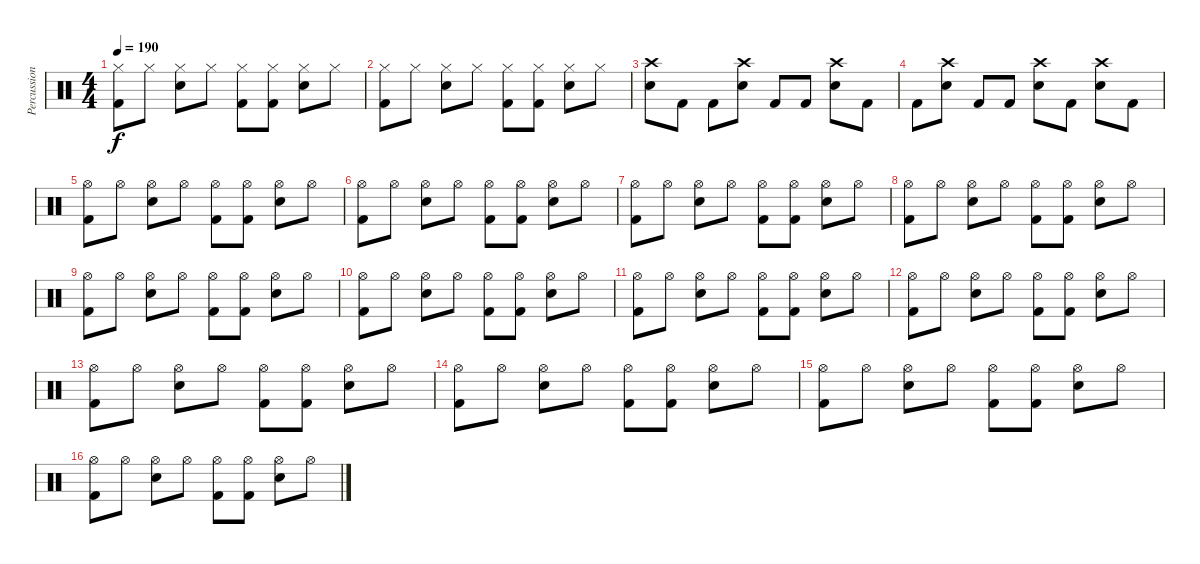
\track ("Percussion" "Percussion") {instrument percussion}
\staff {score}
\articulation defaults
\ts (4 4)
\tempo 190
\clef neutral
\ks c
("Hi-Hat (closed)" "Kick (hit) 2").8{dy f} "Hi-Hat (closed)".8 ("Hi-Hat (closed)" "Snare (hit) 2").8 "Hi-Hat (closed)".8 ("Hi-Hat (closed)" "Kick (hit) 2").8 ("Hi-Hat (closed)" "Kick (hit) 2").8 ("Hi-Hat (closed)" "Snare (hit) 2").8 "Hi-Hat (closed)".8 |
("Hi-Hat (closed)" "Kick (hit) 2").8 "Hi-Hat (closed)".8 ("Hi-Hat (closed)" "Snare (hit) 2").8 "Hi-Hat (closed)".8 ("Hi-Hat (closed)" "Kick (hit) 2").8 ("Hi-Hat (closed)" "Kick (hit) 2").8 ("Hi-Hat (closed)" "Snare (hit) 2").8 "Hi-Hat (closed)".8 |
("Crash high (hit)" "Snare (hit) 2").8 "Kick (hit) 2".8 "Kick (hit) 2".8 ("Crash high (hit)" "Snare (hit) 2").8 "Kick (hit) 2".8 "Kick (hit) 2".8 ("Crash high (hit)" "Snare (hit) 2").8 "Kick (hit) 2".8 |
"Kick (hit) 2".8 ("Crash high (hit)" "Snare (hit) 2").8 "Kick (hit) 2".8 "Kick (hit) 2".8 ("Crash high (hit)" "Snare (hit) 2").8 "Kick (hit) 2".8 ("Crash high (hit)" "Snare (hit) 2").8 "Kick (hit) 2".8 |
("Hi-Hat (open)" "Kick (hit) 2").8 "Hi-Hat (open)".8 ("Hi-Hat (open)" "Snare (hit) 2").8 "Hi-Hat (open)".8 ("Hi-Hat (open)" "Kick (hit) 2").8 ("Hi-Hat (open)" "Kick (hit) 2").8 ("Hi-Hat (open)" "Snare (hit) 2").8 "Hi-Hat (open)".8 |
("Hi-Hat (open)" "Kick (hit) 2").8 "Hi-Hat (open)".8 ("Hi-Hat (open)" "Snare (hit) 2").8 "Hi-Hat (open)".8 ("Hi-Hat (open)" "Kick (hit) 2").8 ("Hi-Hat (open)" "Kick (hit) 2").8 ("Hi-Hat (open)" "Snare (hit) 2").8 "Hi-Hat (open)".8 |
("Hi-Hat (open)" "Kick (hit) 2").8 "Hi-Hat (open)".8 ("Hi-Hat (open)" "Snare (hit) 2").8 "Hi-Hat (open)".8 ("Hi-Hat (open)" "Kick (hit) 2").8 ("Hi-Hat (open)" "Kick (hit) 2").8 ("Hi-Hat (open)" "Snare (hit) 2").8 "Hi-Hat (open)".8 |
("Hi-Hat (open)" "Kick (hit) 2").8 "Hi-Hat (open)".8 ("Hi-Hat (open)" "Snare (hit) 2").8 "Hi-Hat (open)".8 ("Hi-Hat (open)" "Kick (hit) 2").8 ("Hi-Hat (open)" "Kick (hit) 2").8 ("Hi-Hat (open)" "Snare (hit) 2").8 "Hi-Hat (open)".8 |
("Hi-Hat (open)" "Kick (hit) 2").8 "Hi-Hat (open)".8 ("Hi-Hat (open)" "Snare (hit) 2").8 "Hi-Hat (open)".8 ("Hi-Hat (open)" "Kick (hit) 2").8 ("Hi-Hat (open)" "Kick (hit) 2").8 ("Hi-Hat (open)" "Snare (hit) 2").8 "Hi-Hat (open)".8 |
("Hi-Hat (open)" "Kick (hit) 2").8 "Hi-Hat (open)".8 ("Hi-Hat (open)" "Snare (hit) 2").8 "Hi-Hat (open)".8 ("Hi-Hat (open)" "Kick (hit) 2").8 ("Hi-Hat (open)" "Kick (hit) 2").8 ("Hi-Hat (open)" "Snare (hit) 2").8 "Hi-Hat (open)".8 |
("Hi-Hat (open)" "Kick (hit) 2").8 "Hi-Hat (open)".8 ("Hi-Hat (open)" "Snare (hit) 2").8 "Hi-Hat (open)".8 ("Hi-Hat (open)" "Kick (hit) 2").8 ("Hi-Hat (open)" "Kick (hit) 2").8 ("Hi-Hat (open)" "Snare (hit) 2").8 "Hi-Hat (open)".8 |
("Hi-Hat (open)" "Kick (hit) 2").8 "Hi-Hat (open)".8 ("Hi-Hat (open)" "Snare (hit) 2").8 "Hi-Hat (open)".8 ("Hi-Hat (open)" "Kick (hit) 2").8 ("Hi-Hat (open)" "Kick (hit) 2").8 ("Hi-Hat (open)" "Snare (hit) 2").8 "Hi-Hat (open)".8 |
("Hi-Hat (open)" "Kick (hit) 2").8 "Hi-Hat (open)".8 ("Hi-Hat (open)" "Snare (hit) 2").8 "Hi-Hat (open)".8 ("Hi-Hat (open)" "Kick (hit) 2").8 ("Hi-Hat (open)" "Kick (hit) 2").8 ("Hi-Hat (open)" "Snare (hit) 2").8 "Hi-Hat (open)".8 |
("Hi-Hat (open)" "Kick (hit) 2").8 "Hi-Hat (open)".8 ("Hi-Hat (open)" "Snare (hit) 2").8 "Hi-Hat (open)".8 ("Hi-Hat (open)" "Kick (hit) 2").8 ("Hi-Hat (open)" "Kick (hit) 2").8 ("Hi-Hat (open)" "Snare (hit) 2").8 "Hi-Hat (open)".8 |
("Hi-Hat (open)" "Kick (hit) 2").8 "Hi-Hat (open)".8 ("Hi-Hat (open)" "Snare (hit) 2").8 "Hi-Hat (open)".8 ("Hi-Hat (open)" "Kick (hit) 2").8 ("Hi-Hat (open)" "Kick (hit) 2").8 ("Hi-Hat (open)" "Snare (hit) 2").8 "Hi-Hat (open)".8 |
("Hi-Hat (open)" "Kick (hit) 2").8 "Hi-Hat (open)".8 ("Hi-Hat (open)" "Snare (hit) 2").8 "Hi-Hat (open)".8 ("Hi-Hat (open)" "Kick (hit) 2").8 ("Hi-Hat (open)" "Kick (hit) 2").8 ("Hi-Hat (open)" "Snare (hit) 2").8 "Hi-Hat (open)".8
